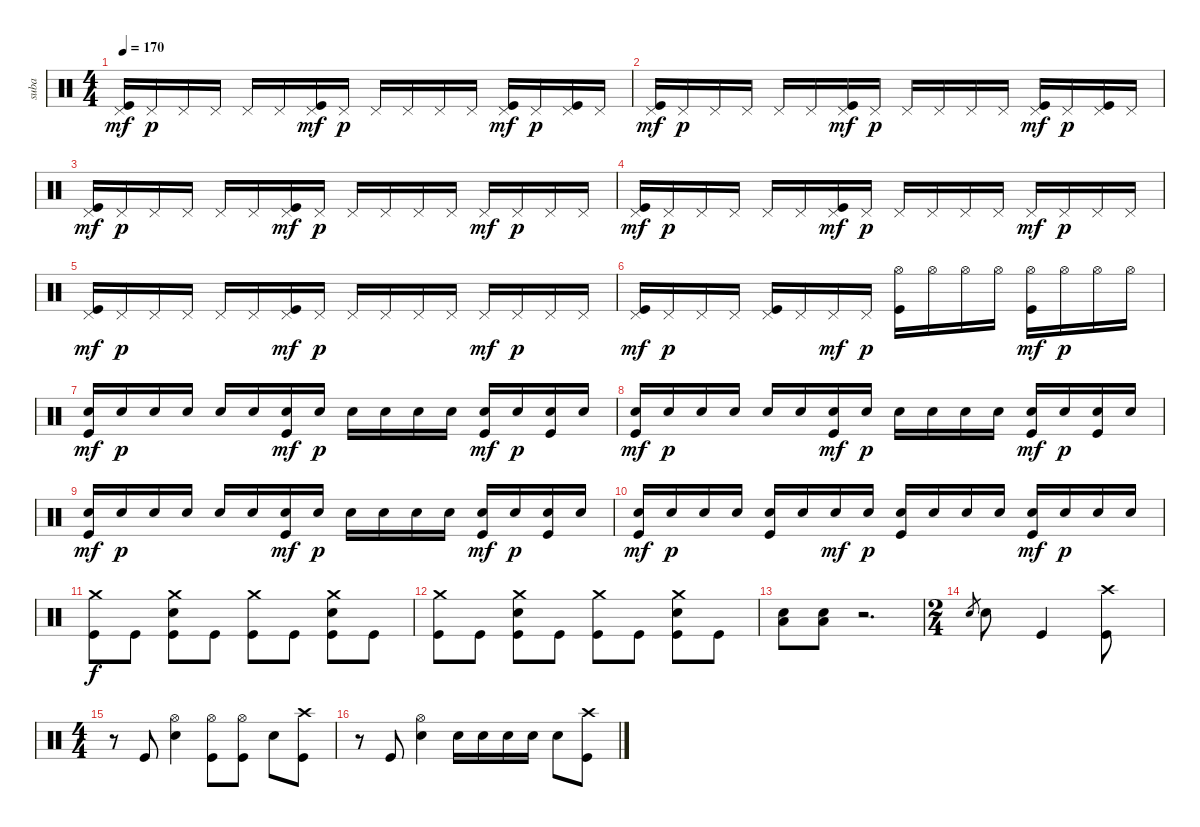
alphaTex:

\track ("suba" "suba") {instrument percussion}
\staff {score}
\articulation defaults
\ts (4 4)
\tempo 170
\clef neutral
\ks c
("Pedal Hi-Hat (hit)" "Kick (hit)").16{dy mf} "Pedal Hi-Hat (hit)".16{dy p} "Pedal Hi-Hat (hit)".16 "Pedal Hi-Hat (hit)".16 "Pedal Hi-Hat (hit)".16 "Pedal Hi-Hat (hit)".16 ("Pedal Hi-Hat (hit)" "Kick (hit)").16{dy mf} "Pedal Hi-Hat (hit)".16{dy p} "Pedal Hi-Hat (hit)".16 "Pedal Hi-Hat (hit)".16 "Pedal Hi-Hat (hit)".16 "Pedal Hi-Hat (hit)".16 ("Pedal Hi-Hat (hit)" "Kick (hit)").16{dy mf} "Pedal Hi-Hat (hit)".16{dy p} ("Pedal Hi-Hat (hit)" "Kick (hit)").16 "Pedal Hi-Hat (hit)".16 |
("Pedal Hi-Hat (hit)" "Kick (hit)").16{dy mf} "Pedal Hi-Hat (hit)".16{dy p} "Pedal Hi-Hat (hit)".16 "Pedal Hi-Hat (hit)".16 "Pedal Hi-Hat (hit)".16 "Pedal Hi-Hat (hit)".16 ("Pedal Hi-Hat (hit)" "Kick (hit)").16{dy mf} "Pedal Hi-Hat (hit)".16{dy p} "Pedal Hi-Hat (hit)".16 "Pedal Hi-Hat (hit)".16 "Pedal Hi-Hat (hit)".16 "Pedal Hi-Hat (hit)".16 ("Pedal Hi-Hat (hit)" "Kick (hit)").16{dy mf} "Pedal Hi-Hat (hit)".16{dy p} ("Pedal Hi-Hat (hit)" "Kick (hit)").16 "Pedal Hi-Hat (hit)".16 |
("Pedal Hi-Hat (hit)" "Kick (hit)").16{dy mf} "Pedal Hi-Hat (hit)".16{dy p} "Pedal Hi-Hat (hit)".16 "Pedal Hi-Hat (hit)".16 "Pedal Hi-Hat (hit)".16 "Pedal Hi-Hat (hit)".16 ("Pedal Hi-Hat (hit)" "Kick (hit)").16{dy mf} "Pedal Hi-Hat (hit)".16{dy p} "Pedal Hi-Hat (hit)".16 "Pedal Hi-Hat (hit)".16 "Pedal Hi-Hat (hit)".16 "Pedal Hi-Hat (hit)".16 "Pedal Hi-Hat (hit)".16{dy mf} "Pedal Hi-Hat (hit)".16{dy p} "Pedal Hi-Hat (hit)".16 "Pedal Hi-Hat (hit)".16 |
("Pedal Hi-Hat (hit)" "Kick (hit)").16{dy mf} "Pedal Hi-Hat (hit)".16{dy p} "Pedal Hi-Hat (hit)".16 "Pedal Hi-Hat (hit)".16 "Pedal Hi-Hat (hit)".16 "Pedal Hi-Hat (hit)".16 ("Pedal Hi-Hat (hit)" "Kick (hit)").16{dy mf} "Pedal Hi-Hat (hit)".16{dy p} "Pedal Hi-Hat (hit)".16 "Pedal Hi-Hat (hit)".16 "Pedal Hi-Hat (hit)".16 "Pedal Hi-Hat (hit)".16 "Pedal Hi-Hat (hit)".16{dy mf} "Pedal Hi-Hat (hit)".16{dy p} "Pedal Hi-Hat (hit)".16 "Pedal Hi-Hat (hit)".16 |
("Pedal Hi-Hat (hit)" "Kick (hit)").16{dy mf} "Pedal Hi-Hat (hit)".16{dy p} "Pedal Hi-Hat (hit)".16 "Pedal Hi-Hat (hit)".16 "Pedal Hi-Hat (hit)".16 "Pedal Hi-Hat (hit)".16 ("Pedal Hi-Hat (hit)" "Kick (hit)").16{dy mf} "Pedal Hi-Hat (hit)".16{dy p} "Pedal Hi-Hat (hit)".16 "Pedal Hi-Hat (hit)".16 "Pedal Hi-Hat (hit)".16 "Pedal Hi-Hat (hit)".16 "Pedal Hi-Hat (hit)".16{dy mf} "Pedal Hi-Hat (hit)".16{dy p} "Pedal Hi-Hat (hit)".16 "Pedal Hi-Hat (hit)".16 |
("Pedal Hi-Hat (hit)" "Kick (hit)").16{dy mf} "Pedal Hi-Hat (hit)".16{dy p} "Pedal Hi-Hat (hit)".16 "Pedal Hi-Hat (hit)".16 ("Pedal Hi-Hat (hit)" "Kick (hit)").16 "Pedal Hi-Hat (hit)".16 "Pedal Hi-Hat (hit)".16{dy mf} "Pedal Hi-Hat (hit)".16{dy p} ("Hi-Hat (open)" "Kick (hit)").16 "Hi-Hat (open)".16 "Hi-Hat (open)".16 "Hi-Hat (open)".16 ("Hi-Hat (open)" "Kick (hit)").16{dy mf} "Hi-Hat (open)".16{dy p} "Hi-Hat (open)".16 "Hi-Hat (open)".16 |
("Electric Snare (hit)" "Kick (hit)").16{dy mf} "Electric Snare (hit)".16{dy p} "Electric Snare (hit)".16 "Electric Snare (hit)".16 "Electric Snare (hit)".16 "Electric Snare (hit)".16 ("Electric Snare (hit)" "Kick (hit)").16{dy mf} "Electric Snare (hit)".16{dy p} "Electric Snare (hit)".16 "Electric Snare (hit)".16 "Electric Snare (hit)".16 "Electric Snare (hit)".16 ("Electric Snare (hit)" "Kick (hit)").16{dy mf} "Electric Snare (hit)".16{dy p} ("Electric Snare (hit)" "Kick (hit)").16 "Electric Snare (hit)".16 |
("Electric Snare (hit)" "Kick (hit)").16{dy mf} "Electric Snare (hit)".16{dy p} "Electric Snare (hit)".16 "Electric Snare (hit)".16 "Electric Snare (hit)".16 "Electric Snare (hit)".16 ("Electric Snare (hit)" "Kick (hit)").16{dy mf} "Electric Snare (hit)".16{dy p} "Electric Snare (hit)".16 "Electric Snare (hit)".16 "Electric Snare (hit)".16 "Electric Snare (hit)".16 ("Electric Snare (hit)" "Kick (hit)").16{dy mf} "Electric Snare (hit)".16{dy p} ("Electric Snare (hit)" "Kick (hit)").16 "Electric Snare (hit)".16 |
("Electric Snare (hit)" "Kick (hit)").16{dy mf} "Electric Snare (hit)".16{dy p} "Electric Snare (hit)".16 "Electric Snare (hit)".16 "Electric Snare (hit)".16 "Electric Snare (hit)".16 ("Electric Snare (hit)" "Kick (hit)").16{dy mf} "Electric Snare (hit)".16{dy p} "Electric Snare (hit)".16 "Electric Snare (hit)".16 "Electric Snare (hit)".16 "Electric Snare (hit)".16 ("Electric Snare (hit)" "Kick (hit)").16{dy mf} "Electric Snare (hit)".16{dy p} ("Electric Snare (hit)" "Kick (hit)").16 "Electric Snare (hit)".16 |
("Electric Snare (hit)" "Kick (hit)").16{dy mf} "Electric Snare (hit)".16{dy p} "Electric Snare (hit)".16 "Electric Snare (hit)".16 ("Electric Snare (hit)" "Kick (hit)").16 "Electric Snare (hit)".16 "Electric Snare (hit)".16{dy mf} "Electric Snare (hit)".16{dy p} ("Electric Snare (hit)" "Kick (hit)").16 "Electric Snare (hit)".16 "Electric Snare (hit)".16 "Electric Snare (hit)".16 ("Electric Snare (hit)" "Kick (hit)").16{dy mf} "Electric Snare (hit)".16{dy p} "Electric Snare (hit)".16 "Electric Snare (hit)".16 |
("Crash medium (hit)" "Kick (hit)").8{dy f} "Kick (hit)".8 ("Crash medium (hit)" "Electric Snare (hit)" "Kick (hit)").8 "Kick (hit)".8 ("Crash medium (hit)" "Kick (hit)").8 "Kick (hit)".8 ("Crash medium (hit)" "Electric Snare (hit)" "Kick (hit)").8 "Kick (hit)".8 |
("Crash medium (hit)" "Kick (hit)").8 "Kick (hit)".8 ("Crash medium (hit)" "Electric Snare (hit)" "Kick (hit)").8 "Kick (hit)".8 ("Crash medium (hit)" "Kick (hit)").8 "Kick (hit)".8 ("Crash medium (hit)" "Electric Snare (hit)" "Kick (hit)").8 "Kick (hit)".8 |
("Low Floor Tom (hit)" "Electric Snare (hit)").8 ("Low Floor Tom (hit)" "Electric Snare (hit)").8 r.2{d} |
\ts (2 4)
"Electric Snare (hit)".8{gr} "Electric Snare (hit)".8 "Kick (hit)".4 ("Crash high (hit)" "Kick (hit)").8 |
\ts (4 4)
r.8 "Kick (hit)".8 ("Hi-Hat (open)" "Electric Snare (hit)").4 ("Hi-Hat (open)" "Kick (hit)").8 ("Hi-Hat (open)" "Kick (hit)").8 "Electric Snare (hit)".8 ("Crash high (hit)" "Kick (hit)").8 |
r.8 "Kick (hit)".8 ("Hi-Hat (open)" "Electric Snare (hit)").4 "Electric Snare (hit)".16 "Electric Snare (hit)".16 "Electric Snare (hit)".16 "Electric Snare (hit)".16 "Electric Snare (hit)".8 ("Crash high (hit)" "Kick (hit)").8
